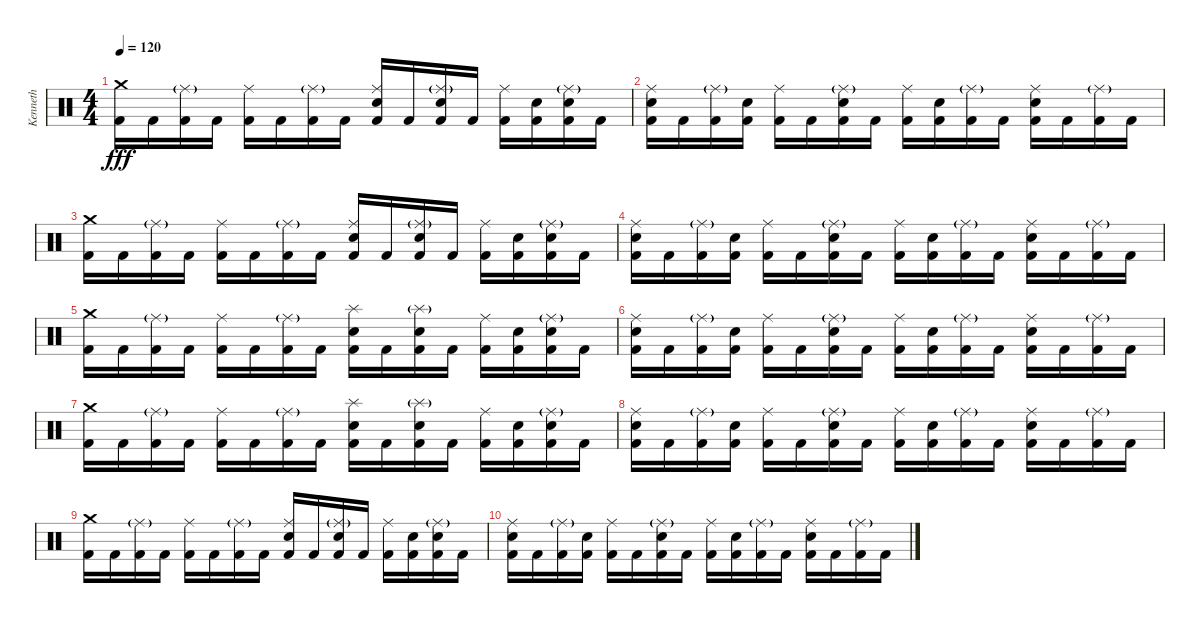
\track ("Kenneth" "Kenneth") {instrument percussion}
\staff {score}
\articulation defaults
\ts (4 4)
\tempo 120
\clef neutral
\ks c
("Crash medium (hit)" "Kick (hit) 2").16{dy fff} "Kick (hit) 2".16 ("Ride (middle)"{g} "Kick (hit) 2").16 "Kick (hit) 2".16 ("Ride (middle)" "Kick (hit) 2").16 "Kick (hit) 2".16 ("Ride (middle)"{g} "Kick (hit) 2").16 "Kick (hit) 2".16 ("Ride (middle)" "Electric Snare (hit)" "Kick (hit) 2").16 "Kick (hit) 2".16 ("Ride (middle)"{g} "Electric Snare (hit)" "Kick (hit) 2").16 "Kick (hit) 2".16 ("Ride (middle)" "Kick (hit) 2").16 ("Electric Snare (hit)" "Kick (hit) 2").16 ("Ride (middle)"{g} "Electric Snare (hit)" "Kick (hit) 2").16 "Kick (hit) 2".16 |
("Ride (middle)" "Electric Snare (hit)" "Kick (hit) 2").16 "Kick (hit) 2".16 ("Ride (middle)"{g} "Kick (hit) 2").16 ("Electric Snare (hit)" "Kick (hit) 2").16 ("Ride (middle)" "Kick (hit) 2").16 "Kick (hit) 2".16 ("Ride (middle)"{g} "Electric Snare (hit)" "Kick (hit) 2").16 "Kick (hit) 2".16 ("Ride (middle)" "Kick (hit) 2").16 ("Electric Snare (hit)" "Kick (hit) 2").16 ("Ride (middle)"{g} "Kick (hit) 2").16 "Kick (hit) 2".16 ("Ride (middle)" "Electric Snare (hit)" "Kick (hit) 2").16 "Kick (hit) 2".16 ("Ride (middle)"{g} "Kick (hit) 2").16 "Kick (hit) 2".16 |
("Crash medium (hit)" "Kick (hit) 2").16 "Kick (hit) 2".16 ("Ride (middle)"{g} "Kick (hit) 2").16 "Kick (hit) 2".16 ("Ride (middle)" "Kick (hit) 2").16 "Kick (hit) 2".16 ("Ride (middle)"{g} "Kick (hit) 2").16 "Kick (hit) 2".16 ("Ride (middle)" "Electric Snare (hit)" "Kick (hit) 2").16 "Kick (hit) 2".16 ("Ride (middle)"{g} "Electric Snare (hit)" "Kick (hit) 2").16 "Kick (hit) 2".16 ("Ride (middle)" "Kick (hit) 2").16 ("Electric Snare (hit)" "Kick (hit) 2").16 ("Ride (middle)"{g} "Electric Snare (hit)" "Kick (hit) 2").16 "Kick (hit) 2".16 |
("Ride (middle)" "Electric Snare (hit)" "Kick (hit) 2").16 "Kick (hit) 2".16 ("Ride (middle)"{g} "Kick (hit) 2").16 ("Electric Snare (hit)" "Kick (hit) 2").16 ("Ride (middle)" "Kick (hit) 2").16 "Kick (hit) 2".16 ("Ride (middle)"{g} "Electric Snare (hit)" "Kick (hit) 2").16 "Kick (hit) 2".16 ("Ride (middle)" "Kick (hit) 2").16 ("Electric Snare (hit)" "Kick (hit) 2").16 ("Ride (middle)"{g} "Kick (hit) 2").16 "Kick (hit) 2".16 ("Ride (middle)" "Electric Snare (hit)" "Kick (hit) 2").16 "Kick (hit) 2".16 ("Ride (middle)"{g} "Kick (hit) 2").16 "Kick (hit) 2".16 |
("Crash medium (hit)" "Kick (hit) 2").16 "Kick (hit) 2".16 ("Ride (middle)"{g} "Kick (hit) 2").16 "Kick (hit) 2".16 ("Ride (middle)" "Kick (hit) 2").16 "Kick (hit) 2".16 ("Ride (middle)"{g} "Kick (hit) 2").16 "Kick (hit) 2".16 ("Splash (hit)" "Electric Snare (hit)" "Kick (hit) 2").16 "Kick (hit) 2".16 ("Splash (hit)"{g} "Electric Snare (hit)" "Kick (hit) 2").16 "Kick (hit) 2".16 ("Ride (middle)" "Kick (hit) 2").16 ("Electric Snare (hit)" "Kick (hit) 2").16 ("Ride (middle)"{g} "Electric Snare (hit)" "Kick (hit) 2").16 "Kick (hit) 2".16 |
("Ride (middle)" "Electric Snare (hit)" "Kick (hit) 2").16 "Kick (hit) 2".16 ("Ride (middle)"{g} "Kick (hit) 2").16 ("Electric Snare (hit)" "Kick (hit) 2").16 ("Ride (middle)" "Kick (hit) 2").16 "Kick (hit) 2".16 ("Ride (middle)"{g} "Electric Snare (hit)" "Kick (hit) 2").16 "Kick (hit) 2".16 ("Ride (middle)" "Kick (hit) 2").16 ("Electric Snare (hit)" "Kick (hit) 2").16 ("Ride (middle)"{g} "Kick (hit) 2").16 "Kick (hit) 2".16 ("Ride (middle)" "Electric Snare (hit)" "Kick (hit) 2").16 "Kick (hit) 2".16 ("Ride (middle)"{g} "Kick (hit) 2").16 "Kick (hit) 2".16 |
("Crash medium (hit)" "Kick (hit) 2").16 "Kick (hit) 2".16 ("Ride (middle)"{g} "Kick (hit) 2").16 "Kick (hit) 2".16 ("Ride (middle)" "Kick (hit) 2").16 "Kick (hit) 2".16 ("Ride (middle)"{g} "Kick (hit) 2").16 "Kick (hit) 2".16 ("Splash (hit)" "Electric Snare (hit)" "Kick (hit) 2").16 "Kick (hit) 2".16 ("Splash (hit)"{g} "Electric Snare (hit)" "Kick (hit) 2").16 "Kick (hit) 2".16 ("Ride (middle)" "Kick (hit) 2").16 ("Electric Snare (hit)" "Kick (hit) 2").16 ("Ride (middle)"{g} "Electric Snare (hit)" "Kick (hit) 2").16 "Kick (hit) 2".16 |
("Ride (middle)" "Electric Snare (hit)" "Kick (hit) 2").16 "Kick (hit) 2".16 ("Ride (middle)"{g} "Kick (hit) 2").16 ("Electric Snare (hit)" "Kick (hit) 2").16 ("Ride (middle)" "Kick (hit) 2").16 "Kick (hit) 2".16 ("Ride (middle)"{g} "Electric Snare (hit)" "Kick (hit) 2").16 "Kick (hit) 2".16 ("Ride (middle)" "Kick (hit) 2").16 ("Electric Snare (hit)" "Kick (hit) 2").16 ("Ride (middle)"{g} "Kick (hit) 2").16 "Kick (hit) 2".16 ("Ride (middle)" "Electric Snare (hit)" "Kick (hit) 2").16 "Kick (hit) 2".16 ("Ride (middle)"{g} "Kick (hit) 2").16 "Kick (hit) 2".16 |
("Crash medium (hit)" "Kick (hit) 2").16 "Kick (hit) 2".16 ("Ride (middle)"{g} "Kick (hit) 2").16 "Kick (hit) 2".16 ("Ride (middle)" "Kick (hit) 2").16 "Kick (hit) 2".16 ("Ride (middle)"{g} "Kick (hit) 2").16 "Kick (hit) 2".16 ("Ride (middle)" "Electric Snare (hit)" "Kick (hit) 2").16 "Kick (hit) 2".16 ("Ride (middle)"{g} "Electric Snare (hit)" "Kick (hit) 2").16 "Kick (hit) 2".16 ("Ride (middle)" "Kick (hit) 2").16 ("Electric Snare (hit)" "Kick (hit) 2").16 ("Ride (middle)"{g} "Electric Snare (hit)" "Kick (hit) 2").16 "Kick (hit) 2".16 |
("Ride (middle)" "Electric Snare (hit)" "Kick (hit) 2").16 "Kick (hit) 2".16 ("Ride (middle)"{g} "Kick (hit) 2").16 ("Electric Snare (hit)" "Kick (hit) 2").16 ("Ride (middle)" "Kick (hit) 2").16 "Kick (hit) 2".16 ("Ride (middle)"{g} "Electric Snare (hit)" "Kick (hit) 2").16 "Kick (hit) 2".16 ("Ride (middle)" "Kick (hit) 2").16 ("Electric Snare (hit)" "Kick (hit) 2").16 ("Ride (middle)"{g} "Kick (hit) 2").16 "Kick (hit) 2".16 ("Ride (middle)" "Electric Snare (hit)" "Kick (hit) 2").16 "Kick (hit) 2".16 ("Ride (middle)"{g} "Kick (hit) 2").16 "Kick (hit) 2".16
